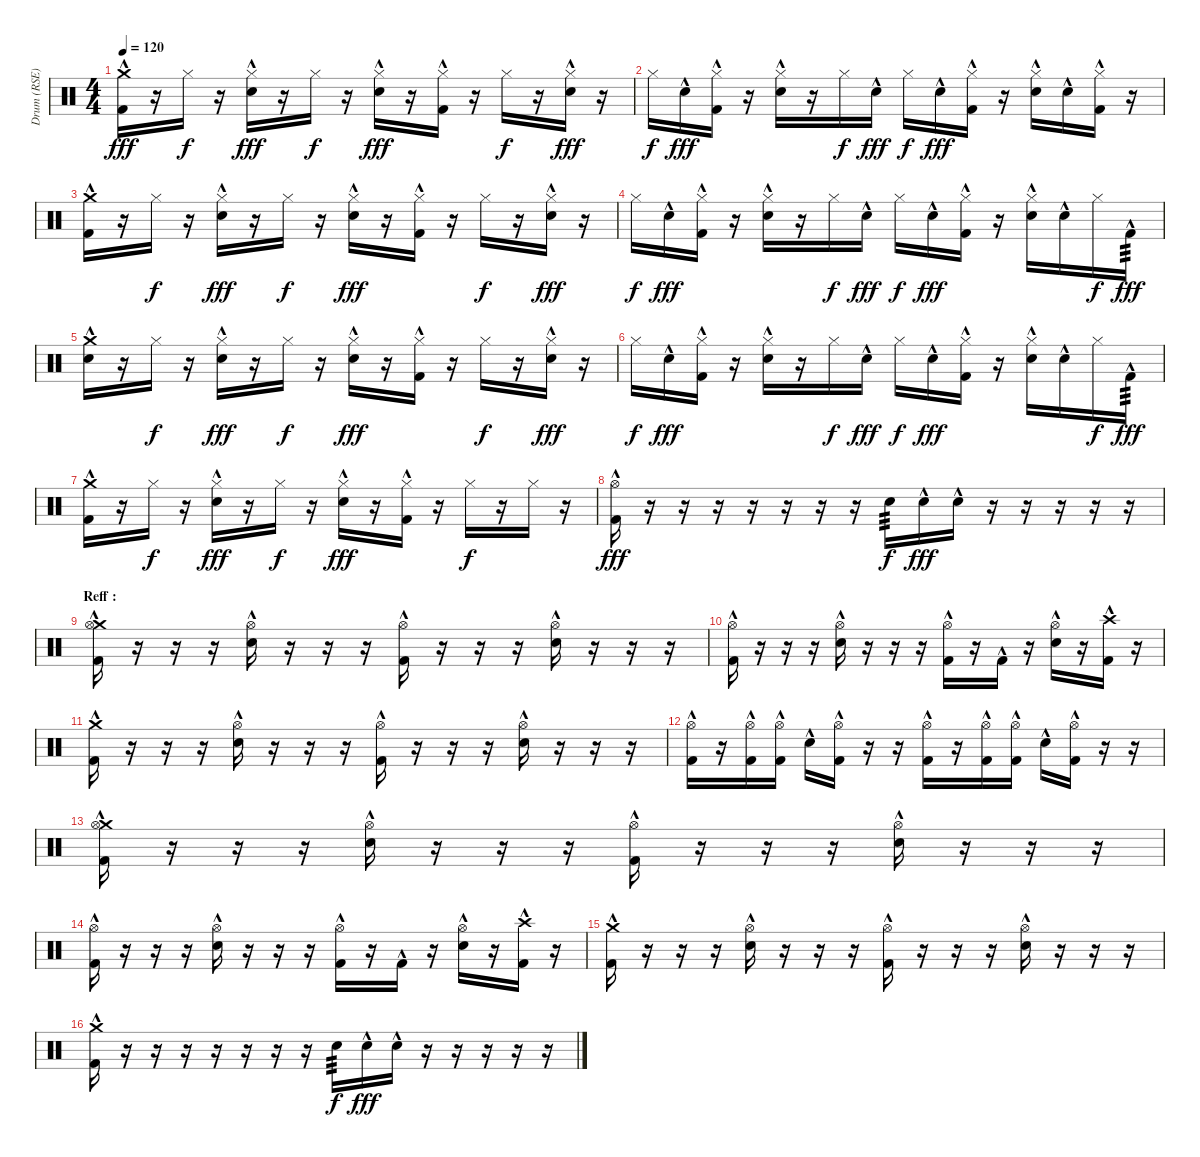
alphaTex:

\track ("Drum (RSE)" "Drum (RSE)") {instrument percussion}
\staff {score}
\articulation defaults
\ts (4 4)
\tempo 120
\clef neutral
\ks c
("Crash medium (hit)" "Kick (hit) 2"{hac}).16{dy fff} r.16 "Hi-Hat (closed)".16{dy f} r.16 ("Hi-Hat (closed)" "Snare (hit) 2"{hac}).16{dy fff} r.16 "Hi-Hat (closed)".16{dy f} r.16 ("Hi-Hat (closed)" "Snare (hit) 2"{hac}).16{dy fff} r.16 ("Hi-Hat (closed)" "Kick (hit) 2"{hac}).16 r.16 "Hi-Hat (closed)".16{dy f} r.16 ("Hi-Hat (closed)" "Snare (hit) 2"{hac}).16{dy fff} r.16 |
"Hi-Hat (closed)".16{dy f} "Snare (hit) 2"{hac}.16{dy fff} ("Hi-Hat (closed)" "Kick (hit) 2"{hac}).16 r.16 ("Hi-Hat (closed)" "Snare (hit) 2"{hac}).16 r.16 "Hi-Hat (closed)".16{dy f} "Snare (hit) 2"{hac}.16{dy fff} "Hi-Hat (closed)".16{dy f} "Snare (hit) 2"{hac}.16{dy fff} ("Hi-Hat (closed)" "Kick (hit) 2"{hac}).16 r.16 ("Hi-Hat (closed)" "Snare (hit) 2"{hac}).16 "Snare (hit) 2"{hac}.16 ("Hi-Hat (closed)" "Kick (hit) 2"{hac}).16 r.16 |
("Crash medium (hit)" "Kick (hit) 2"{hac}).16 r.16 "Hi-Hat (closed)".16{dy f} r.16 ("Hi-Hat (closed)" "Snare (hit) 2"{hac}).16{dy fff} r.16 "Hi-Hat (closed)".16{dy f} r.16 ("Hi-Hat (closed)" "Snare (hit) 2"{hac}).16{dy fff} r.16 ("Hi-Hat (closed)" "Kick (hit) 2"{hac}).16 r.16 "Hi-Hat (closed)".16{dy f} r.16 ("Hi-Hat (closed)" "Snare (hit) 2"{hac}).16{dy fff} r.16 |
"Hi-Hat (closed)".16{dy f} "Snare (hit) 2"{hac}.16{dy fff} ("Hi-Hat (closed)" "Kick (hit) 2"{hac}).16 r.16 ("Hi-Hat (closed)" "Snare (hit) 2"{hac}).16 r.16 "Hi-Hat (closed)".16{dy f} "Snare (hit) 2"{hac}.16{dy fff} "Hi-Hat (closed)".16{dy f} "Snare (hit) 2"{hac}.16{dy fff} ("Hi-Hat (closed)" "Kick (hit) 2"{hac}).16 r.16 ("Hi-Hat (closed)" "Snare (hit) 2"{hac}).16 "Snare (hit) 2"{hac}.16 "Hi-Hat (closed)".16{dy f} "Kick (hit) 2"{hac}.16{tp 3 dy fff} |
("Crash medium (hit)" "Snare (hit) 2"{hac}).16 r.16 "Hi-Hat (closed)".16{dy f} r.16 ("Hi-Hat (closed)" "Snare (hit) 2"{hac}).16{dy fff} r.16 "Hi-Hat (closed)".16{dy f} r.16 ("Hi-Hat (closed)" "Snare (hit) 2"{hac}).16{dy fff} r.16 ("Hi-Hat (closed)" "Kick (hit) 2"{hac}).16 r.16 "Hi-Hat (closed)".16{dy f} r.16 ("Hi-Hat (closed)" "Snare (hit) 2"{hac}).16{dy fff} r.16 |
"Hi-Hat (closed)".16{dy f} "Snare (hit) 2"{hac}.16{dy fff} ("Hi-Hat (closed)" "Kick (hit) 2"{hac}).16 r.16 ("Hi-Hat (closed)" "Snare (hit) 2"{hac}).16 r.16 "Hi-Hat (closed)".16{dy f} "Snare (hit) 2"{hac}.16{dy fff} "Hi-Hat (closed)".16{dy f} "Snare (hit) 2"{hac}.16{dy fff} ("Hi-Hat (closed)" "Kick (hit) 2"{hac}).16 r.16 ("Hi-Hat (closed)" "Snare (hit) 2"{hac}).16 "Snare (hit) 2"{hac}.16 "Hi-Hat (closed)".16{dy f} "Kick (hit) 2"{hac}.16{tp 3 dy fff} |
("Crash medium (hit)" "Kick (hit) 2"{hac}).16 r.16 "Hi-Hat (closed)".16{dy f} r.16 ("Hi-Hat (closed)" "Snare (hit) 2"{hac}).16{dy fff} r.16 "Hi-Hat (closed)".16{dy f} r.16 ("Hi-Hat (closed)" "Snare (hit) 2"{hac}).16{dy fff} r.16 ("Hi-Hat (closed)" "Kick (hit) 2"{hac}).16 r.16 "Hi-Hat (closed)".16{dy f} r.16 "Hi-Hat (closed)".16 r.16 |
("Hi-Hat (open)" "Kick (hit) 2"{hac}).16{dy fff} r.16 r.16 r.16 r.16 r.16 r.16 r.16 "Snare (hit) 2".16{tp 3 dy f} "Snare (hit) 2"{hac}.16{dy fff} "Snare (hit) 2"{hac}.16 r.16 r.16 r.16 r.16 r.16 |
\section ("" "Reff :")
("Crash medium (hit)" "Hi-Hat (open)" "Kick (hit) 2"{hac}).16 r.16 r.16 r.16 ("Hi-Hat (open)" "Snare (hit) 2"{hac}).16 r.16 r.16 r.16 ("Hi-Hat (open)" "Kick (hit) 2"{hac}).16 r.16 r.16 r.16 ("Hi-Hat (open)" "Snare (hit) 2"{hac}).16 r.16 r.16 r.16 |
("Hi-Hat (open)" "Kick (hit) 2"{hac}).16 r.16 r.16 r.16 ("Hi-Hat (open)" "Snare (hit) 2"{hac}).16 r.16 r.16 r.16 ("Hi-Hat (open)" "Kick (hit) 2"{hac}).16 r.16 "Kick (hit) 2"{hac}.16 r.16 ("Hi-Hat (open)" "Snare (hit) 2"{hac}).16 r.16 ("Crash high (hit)" "Kick (hit) 2"{hac}).16 r.16 |
("Crash medium (hit)" "Kick (hit) 2"{hac}).16 r.16 r.16 r.16 ("Hi-Hat (open)" "Snare (hit) 2"{hac}).16 r.16 r.16 r.16 ("Hi-Hat (open)" "Kick (hit) 2"{hac}).16 r.16 r.16 r.16 ("Hi-Hat (open)" "Snare (hit) 2"{hac}).16 r.16 r.16 r.16 |
("Hi-Hat (open)" "Kick (hit) 2"{hac}).16 r.16 ("Hi-Hat (open)" "Kick (hit) 2"{hac}).16 ("Hi-Hat (open)" "Kick (hit) 2"{hac}).16 "Snare (hit) 2"{hac}.16 ("Hi-Hat (open)" "Kick (hit) 2"{hac}).16 r.16 r.16 ("Hi-Hat (open)" "Kick (hit) 2"{hac}).16 r.16 ("Hi-Hat (open)" "Kick (hit) 2"{hac}).16 ("Hi-Hat (open)" "Kick (hit) 2"{hac}).16 "Snare (hit) 2"{hac}.16 ("Hi-Hat (open)" "Kick (hit) 2"{hac}).16 r.16 r.16 |
("Crash medium (hit)" "Hi-Hat (open)" "Kick (hit) 2"{hac}).16 r.16 r.16 r.16 ("Hi-Hat (open)" "Snare (hit) 2"{hac}).16 r.16 r.16 r.16 ("Hi-Hat (open)" "Kick (hit) 2"{hac}).16 r.16 r.16 r.16 ("Hi-Hat (open)" "Snare (hit) 2"{hac}).16 r.16 r.16 r.16 |
("Hi-Hat (open)" "Kick (hit) 2"{hac}).16 r.16 r.16 r.16 ("Hi-Hat (open)" "Snare (hit) 2"{hac}).16 r.16 r.16 r.16 ("Hi-Hat (open)" "Kick (hit) 2"{hac}).16 r.16 "Kick (hit) 2"{hac}.16 r.16 ("Hi-Hat (open)" "Snare (hit) 2"{hac}).16 r.16 ("Crash high (hit)" "Kick (hit) 2"{hac}).16 r.16 |
("Crash medium (hit)" "Kick (hit) 2"{hac}).16 r.16 r.16 r.16 ("Hi-Hat (open)" "Snare (hit) 2"{hac}).16 r.16 r.16 r.16 ("Hi-Hat (open)" "Kick (hit) 2"{hac}).16 r.16 r.16 r.16 ("Hi-Hat (open)" "Snare (hit) 2"{hac}).16 r.16 r.16 r.16 |
("Crash medium (hit)" "Kick (hit) 2"{hac}).16 r.16 r.16 r.16 r.16 r.16 r.16 r.16 "Snare (hit) 2".16{tp 3 dy f} "Snare (hit) 2"{hac}.16{dy fff} "Snare (hit) 2"{hac}.16 r.16 r.16 r.16 r.16 r.16
